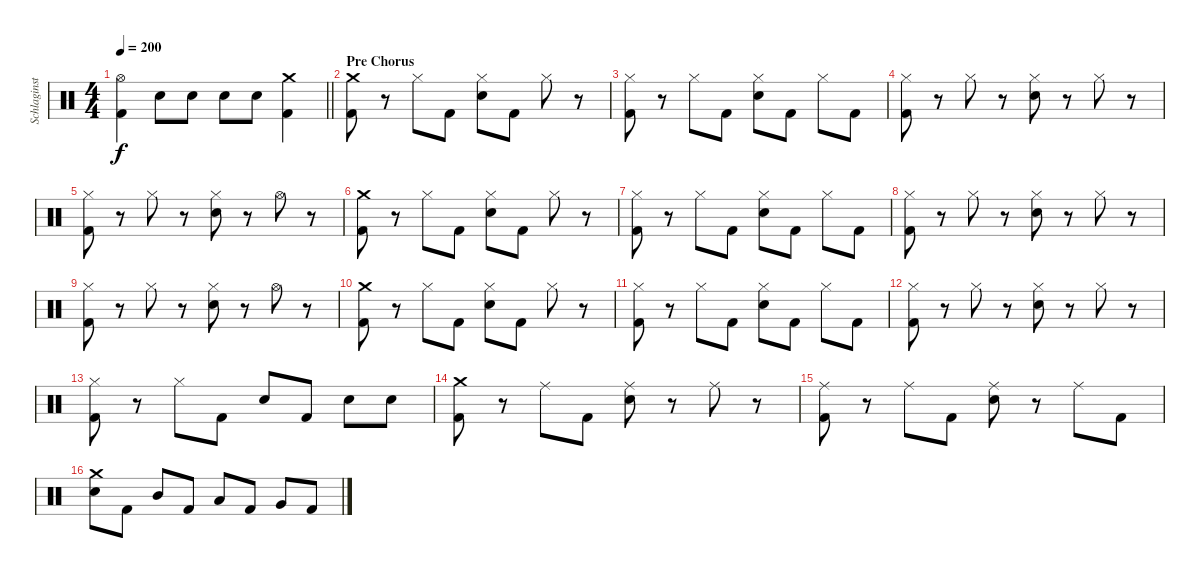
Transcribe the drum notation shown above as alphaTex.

\track ("Schlaginstrumente - Auswahl" "Schlaginst") {instrument percussion}
\staff {score}
\articulation defaults
\ts (4 4)
\tempo 200
\clef neutral
\barLineRight lightlight
\ks c
("Hi-Hat (open)" "Kick (hit) 2").4{dy f} "Electric Snare (hit)".8 "Electric Snare (hit)".8 "Electric Snare (hit)".8 "Electric Snare (hit)".8 ("Crash medium (hit)" "Kick (hit) 2").4 |
\section ("" "Pre Chorus")
("Crash medium (hit)" "Kick (hit) 2").8 r.8 "Hi-Hat (closed)".8 "Kick (hit) 2".8 ("Hi-Hat (closed)" "Electric Snare (hit)").8 "Kick (hit) 2".8 "Hi-Hat (closed)".8 r.8 |
("Hi-Hat (closed)" "Kick (hit) 2").8 r.8 "Hi-Hat (closed)".8 "Kick (hit) 2".8 ("Hi-Hat (closed)" "Electric Snare (hit)").8 "Kick (hit) 2".8 "Hi-Hat (closed)".8 "Kick (hit) 2".8 |
("Hi-Hat (closed)" "Kick (hit) 2").8 r.8 "Hi-Hat (closed)".8 r.8 ("Hi-Hat (closed)" "Electric Snare (hit)").8 r.8 "Hi-Hat (closed)".8 r.8 |
("Hi-Hat (closed)" "Kick (hit) 2").8 r.8 "Hi-Hat (closed)".8 r.8 ("Hi-Hat (closed)" "Electric Snare (hit)").8 r.8 "Hi-Hat (open)".8 r.8 |
("Crash medium (hit)" "Kick (hit) 2").8 r.8 "Hi-Hat (closed)".8 "Kick (hit) 2".8 ("Hi-Hat (closed)" "Electric Snare (hit)").8 "Kick (hit) 2".8 "Hi-Hat (closed)".8 r.8 |
("Hi-Hat (closed)" "Kick (hit) 2").8 r.8 "Hi-Hat (closed)".8 "Kick (hit) 2".8 ("Hi-Hat (closed)" "Electric Snare (hit)").8 "Kick (hit) 2".8 "Hi-Hat (closed)".8 "Kick (hit) 2".8 |
("Hi-Hat (closed)" "Kick (hit) 2").8 r.8 "Hi-Hat (closed)".8 r.8 ("Hi-Hat (closed)" "Electric Snare (hit)").8 r.8 "Hi-Hat (closed)".8 r.8 |
("Hi-Hat (closed)" "Kick (hit) 2").8 r.8 "Hi-Hat (closed)".8 r.8 ("Hi-Hat (closed)" "Electric Snare (hit)").8 r.8 "Hi-Hat (open)".8 r.8 |
("Crash medium (hit)" "Kick (hit) 2").8 r.8 "Hi-Hat (closed)".8 "Kick (hit) 2".8 ("Hi-Hat (closed)" "Electric Snare (hit)").8 "Kick (hit) 2".8 "Hi-Hat (closed)".8 r.8 |
("Hi-Hat (closed)" "Kick (hit) 2").8 r.8 "Hi-Hat (closed)".8 "Kick (hit) 2".8 ("Hi-Hat (closed)" "Electric Snare (hit)").8 "Kick (hit) 2".8 "Hi-Hat (closed)".8 "Kick (hit) 2".8 |
("Hi-Hat (closed)" "Kick (hit) 2").8 r.8 "Hi-Hat (closed)".8 r.8 ("Hi-Hat (closed)" "Electric Snare (hit)").8 r.8 "Hi-Hat (closed)".8 r.8 |
("Hi-Hat (closed)" "Kick (hit) 2").8 r.8 "Hi-Hat (closed)".8 "Kick (hit) 2".8 "Electric Snare (hit)".8 "Kick (hit) 2".8 "Electric Snare (hit)".8 "Electric Snare (hit)".8 |
("Crash medium (hit)" "Kick (hit) 2").8 r.8 "Ride (middle)".8 "Kick (hit) 2".8 ("Ride (middle)" "Electric Snare (hit)").8 r.8 "Ride (middle)".8 r.8 |
("Ride (middle)" "Kick (hit) 2").8 r.8 "Ride (middle)".8 "Kick (hit) 2".8 ("Ride (middle)" "Electric Snare (hit)").8 r.8 "Ride (middle)".8 "Kick (hit) 2".8 |
("Crash medium (hit)" "Electric Snare (hit)").8 "Kick (hit) 2".8 "Mid Tom (hit)".8 "Kick (hit) 2".8 "Low Tom (hit)".8 "Kick (hit) 2".8 "Very Low Tom (hit)".8 "Kick (hit) 2".8
